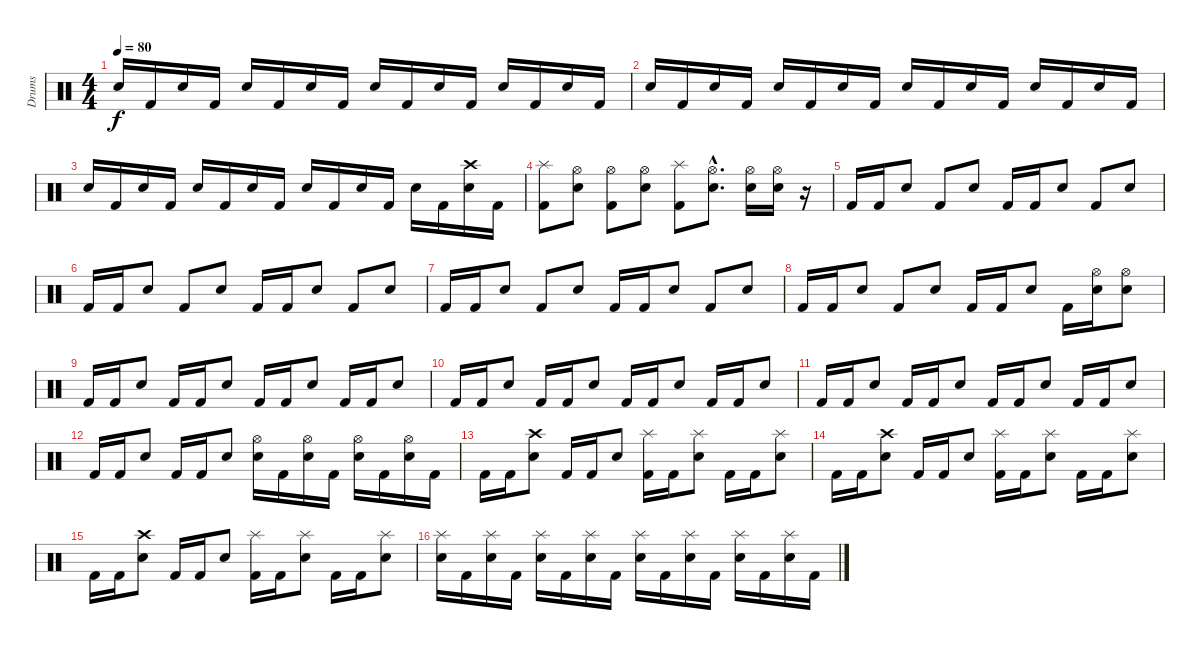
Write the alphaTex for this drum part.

\track ("Drums" "Drums") {instrument percussion}
\staff {score}
\articulation defaults
\ts (4 4)
\tempo 80
\clef neutral
\ks c "Electric Snare (hit)".16{dy f} "Kick (hit) 2".16 "Electric Snare (hit)".16 "Kick (hit) 2".16 "Electric Snare (hit)".16 "Kick (hit) 2".16 "Electric Snare (hit)".16 "Kick (hit) 2".16 "Electric Snare (hit)".16 "Kick (hit) 2".16 "Electric Snare (hit)".16 "Kick (hit) 2".16 "Electric Snare (hit)".16 "Kick (hit) 2".16 "Electric Snare (hit)".16 "Kick (hit) 2".16
|
"Electric Snare (hit)".16 "Kick (hit) 2".16 "Electric Snare (hit)".16 "Kick (hit) 2".16 "Electric Snare (hit)".16 "Kick (hit) 2".16 "Electric Snare (hit)".16 "Kick (hit) 2".16 "Electric Snare (hit)".16 "Kick (hit) 2".16 "Electric Snare (hit)".16 "Kick (hit) 2".16 "Electric Snare (hit)".16 "Kick (hit) 2".16 "Electric Snare (hit)".16 "Kick (hit) 2".16 |
"Electric Snare (hit)".16 "Kick (hit) 2".16 "Electric Snare (hit)".16 "Kick (hit) 2".16 "Electric Snare (hit)".16 "Kick (hit) 2".16 "Electric Snare (hit)".16 "Kick (hit) 2".16 "Electric Snare (hit)".16 "Kick (hit) 2".16 "Electric Snare (hit)".16 "Kick (hit) 2".16 "Electric Snare (hit)".16 "Kick (hit) 2".16 ("Electric Snare (hit)" "Crash high (hit)").16 "Kick (hit) 2".16 |
("Kick (hit) 2" "Splash (hit)").8 ("Electric Snare (hit)" "Hi-Hat (open)").8 ("Kick (hit) 2" "Hi-Hat (open)").8 ("Electric Snare (hit)" "Hi-Hat (open)").8 ("Kick (hit) 2" "Splash (hit)").8 ("Electric Snare (hit)"{hac} "Hi-Hat (open)"{hac}).8{d} ("Electric Snare (hit)" "Hi-Hat (open)").16 ("Electric Snare (hit)" "Hi-Hat (open)").16 r.16 |
"Kick (hit) 2".16 "Kick (hit) 2".16 "Electric Snare (hit)".8 "Kick (hit) 2".8 "Electric Snare (hit)".8 "Kick (hit) 2".16 "Kick (hit) 2".16 "Electric Snare (hit)".8 "Kick (hit) 2".8 "Electric Snare (hit)".8 |
"Kick (hit) 2".16 "Kick (hit) 2".16 "Electric Snare (hit)".8 "Kick (hit) 2".8 "Electric Snare (hit)".8 "Kick (hit) 2".16 "Kick (hit) 2".16 "Electric Snare (hit)".8 "Kick (hit) 2".8 "Electric Snare (hit)".8 |
"Kick (hit) 2".16 "Kick (hit) 2".16 "Electric Snare (hit)".8 "Kick (hit) 2".8 "Electric Snare (hit)".8 "Kick (hit) 2".16 "Kick (hit) 2".16 "Electric Snare (hit)".8 "Kick (hit) 2".8 "Electric Snare (hit)".8 |
"Kick (hit) 2".16 "Kick (hit) 2".16 "Electric Snare (hit)".8 "Kick (hit) 2".8 "Electric Snare (hit)".8 "Kick (hit) 2".16 "Kick (hit) 2".16 "Electric Snare (hit)".8 "Kick (hit) 2".16 ("Electric Snare (hit)" "Hi-Hat (open)").16 ("Electric Snare (hit)" "Hi-Hat (open)").8 |
"Kick (hit) 2".16 "Kick (hit) 2".16 "Electric Snare (hit)".8 "Kick (hit) 2".16 "Kick (hit) 2".16 "Electric Snare (hit)".8 "Kick (hit) 2".16 "Kick (hit) 2".16 "Electric Snare (hit)".8 "Kick (hit) 2".16 "Kick (hit) 2".16 "Electric Snare (hit)".8 |
"Kick (hit) 2".16 "Kick (hit) 2".16 "Electric Snare (hit)".8 "Kick (hit) 2".16 "Kick (hit) 2".16 "Electric Snare (hit)".8 "Kick (hit) 2".16 "Kick (hit) 2".16 "Electric Snare (hit)".8 "Kick (hit) 2".16 "Kick (hit) 2".16 "Electric Snare (hit)".8 |
"Kick (hit) 2".16 "Kick (hit) 2".16 "Electric Snare (hit)".8 "Kick (hit) 2".16 "Kick (hit) 2".16 "Electric Snare (hit)".8 "Kick (hit) 2".16 "Kick (hit) 2".16 "Electric Snare (hit)".8 "Kick (hit) 2".16 "Kick (hit) 2".16 "Electric Snare (hit)".8 |
"Kick (hit) 2".16 "Kick (hit) 2".16 "Electric Snare (hit)".8 "Kick (hit) 2".16 "Kick (hit) 2".16 "Electric Snare (hit)".8 ("Electric Snare (hit)" "Hi-Hat (open)").16 "Kick (hit) 2".16 ("Electric Snare (hit)" "Hi-Hat (open)").16 "Kick (hit) 2".16 ("Electric Snare (hit)" "Hi-Hat (open)").16 "Kick (hit) 2".16 ("Electric Snare (hit)" "Hi-Hat (open)").16 "Kick (hit) 2".16 |
"Kick (hit) 2".16 "Kick (hit) 2".16 ("Electric Snare (hit)" "Crash high (hit)").8 "Kick (hit) 2".16 "Kick (hit) 2".16 "Electric Snare (hit)".8 ("Kick (hit) 2" "Splash (hit)").16 "Kick (hit) 2".16 ("Electric Snare (hit)" "Splash (hit)").8 "Kick (hit) 2".16 "Kick (hit) 2".16 ("Electric Snare (hit)" "Splash (hit)").8 |
"Kick (hit) 2".16 "Kick (hit) 2".16 ("Electric Snare (hit)" "Crash high (hit)").8 "Kick (hit) 2".16 "Kick (hit) 2".16 "Electric Snare (hit)".8 ("Kick (hit) 2" "Splash (hit)").16 "Kick (hit) 2".16 ("Electric Snare (hit)" "Splash (hit)").8 "Kick (hit) 2".16 "Kick (hit) 2".16 ("Electric Snare (hit)" "Splash (hit)").8 |
"Kick (hit) 2".16 "Kick (hit) 2".16 ("Electric Snare (hit)" "Crash high (hit)").8 "Kick (hit) 2".16 "Kick (hit) 2".16 "Electric Snare (hit)".8 ("Kick (hit) 2" "Splash (hit)").16 "Kick (hit) 2".16 ("Electric Snare (hit)" "Splash (hit)").8 "Kick (hit) 2".16 "Kick (hit) 2".16 ("Electric Snare (hit)" "Splash (hit)").8 |
("Electric Snare (hit)" "Splash (hit)").16 "Kick (hit) 2".16 ("Electric Snare (hit)" "Splash (hit)").16 "Kick (hit) 2".16 ("Electric Snare (hit)" "Splash (hit)").16 "Kick (hit) 2".16 ("Electric Snare (hit)" "Splash (hit)").16 "Kick (hit) 2".16 ("Electric Snare (hit)" "Splash (hit)").16 "Kick (hit) 2".16 ("Electric Snare (hit)" "Splash (hit)").16 "Kick (hit) 2".16 ("Electric Snare (hit)" "Splash (hit)").16 "Kick (hit) 2".16 ("Electric Snare (hit)" "Splash (hit)").16 "Kick (hit) 2".16
